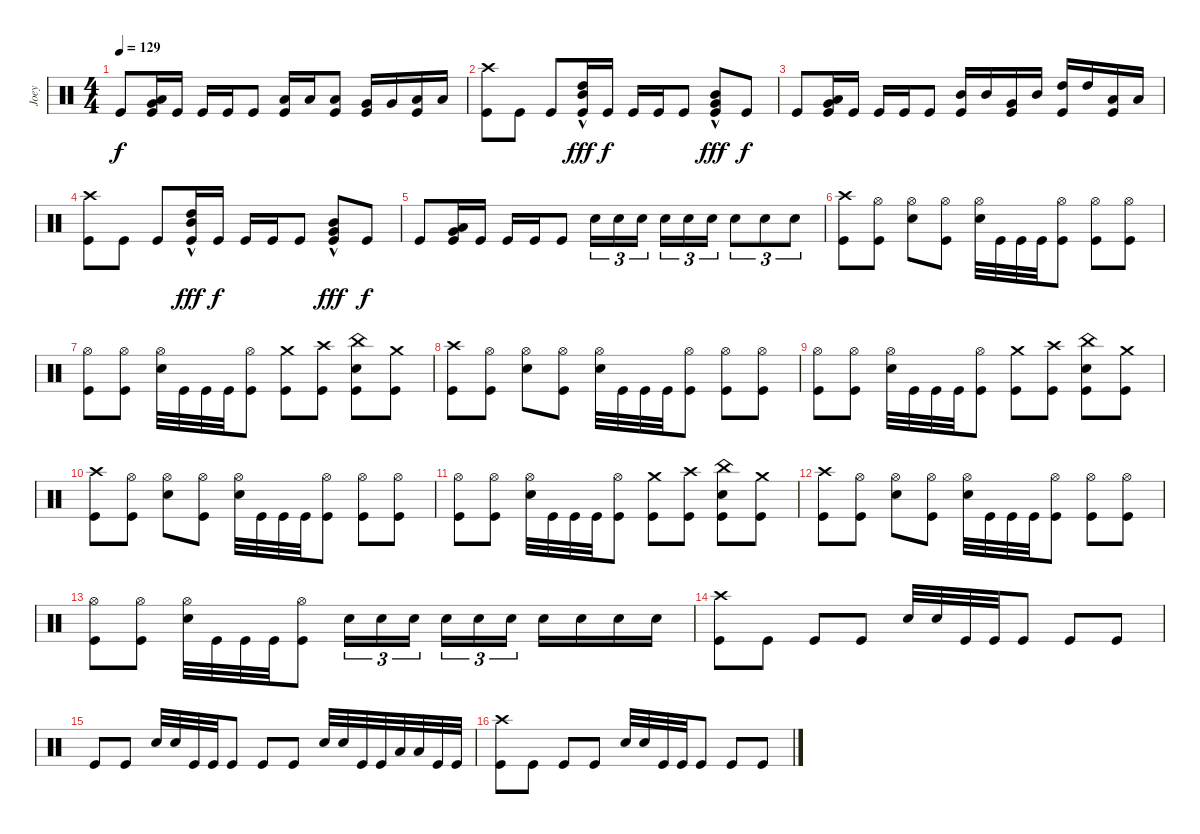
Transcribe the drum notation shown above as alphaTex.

\track ("Joey" "Joey") {instrument percussion}
\staff {score}
\articulation defaults
\ts (4 4)
\tempo 129
\clef neutral
\ks c "Kick (hit)".8{dy f}
("Kick (hit)" "Low Floor Tom (hit)" "Very Low Tom (hit)").16 "Kick (hit)".16 "Kick (hit)".16 "Kick (hit)".16 "Kick (hit)".8 ("Kick (hit)" "Low Tom (hit)").16 "Low Tom (hit)".16 ("Kick (hit)" "Low Tom (hit)").8 ("Kick (hit)" "Very Low Tom (hit)").16 "Very Low Tom (hit)".16 ("Kick (hit)" "Low Floor Tom (hit)").16 "Low Floor Tom (hit)".16 |
("Crash high (hit)" "Kick (hit)").8 "Kick (hit)".8 "Kick (hit)".8 ("Kick (hit)" "High Tom (hit)"{hac} "Mid Tom (hit)"{hac}).16{dy fff} "Kick (hit)".16{dy f} "Kick (hit)".16 "Kick (hit)".16 "Kick (hit)".8 ("Kick (hit)" "Very Low Tom (hit)"{hac} "Mid Tom (hit)"{hac}).8{dy fff} "Kick (hit)".8{dy f} |
"Kick (hit)".8 ("Kick (hit)" "Low Floor Tom (hit)" "Very Low Tom (hit)").16 "Kick (hit)".16 "Kick (hit)".16 "Kick (hit)".16 "Kick (hit)".8 ("Kick (hit)" "Mid Tom (hit)").16 "Mid Tom (hit)".16 ("Kick (hit)" "Very Low Tom (hit)").16 "Mid Tom (hit)".16 ("Kick (hit)" "High Tom (hit)").16 "High Tom (hit)".16 ("Kick (hit)" "Low Floor Tom (hit)").16 "Low Floor Tom (hit)".16 |
("Crash high (hit)" "Kick (hit)").8 "Kick (hit)".8 "Kick (hit)".8 ("Kick (hit)" "High Tom (hit)"{hac} "Mid Tom (hit)"{hac}).16{dy fff} "Kick (hit)".16{dy f} "Kick (hit)".16 "Kick (hit)".16 "Kick (hit)".8 ("Kick (hit)" "Very Low Tom (hit)"{hac} "Mid Tom (hit)"{hac}).8{dy fff} "Kick (hit)".8{dy f} |
"Kick (hit)".8 ("Kick (hit)" "Low Floor Tom (hit)" "Very Low Tom (hit)").16 "Kick (hit)".16 "Kick (hit)".16 "Kick (hit)".16 "Kick (hit)".8 "Snare (hit) 2".16{tu (3 2)} "Snare (hit) 2".16{tu (3 2)} "Snare (hit) 2".16{tu (3 2) beam splitsecondary} "Snare (hit) 2".16{tu (3 2)} "Snare (hit) 2".16{tu (3 2)} "Snare (hit) 2".16{tu (3 2)} "Snare (hit) 2".8{tu (3 2)} "Snare (hit) 2".8{tu (3 2)} "Snare (hit) 2".8{tu (3 2)} |
("Crash high (hit)" "Kick (hit)").8 ("Kick (hit)" "Hi-Hat (open)").8 ("Snare (hit) 2" "Hi-Hat (open)").8 ("Kick (hit)" "Hi-Hat (open)").8 ("Snare (hit) 2" "Hi-Hat (open)").32 "Kick (hit)".32 "Kick (hit)".32 "Kick (hit)".32 ("Kick (hit)" "Hi-Hat (open)").8 ("Kick (hit)" "Hi-Hat (open)").8 ("Kick (hit)" "Hi-Hat (open)").8 |
("Kick (hit)" "Hi-Hat (open)").8 ("Kick (hit)" "Hi-Hat (open)").8 ("Snare (hit) 2" "Hi-Hat (open)").32 "Kick (hit)".32 "Kick (hit)".32 "Kick (hit)".32 ("Kick (hit)" "Hi-Hat (open)").8 ("Kick (hit)" "Crash medium (hit)").8 ("Kick (hit)" "Crash high (hit)").8 ("Kick (hit)" "China (hit)" "Snare (hit) 2").8 ("Kick (hit)" "Crash medium (hit)").8 |
("Crash high (hit)" "Kick (hit)").8 ("Kick (hit)" "Hi-Hat (open)").8 ("Snare (hit) 2" "Hi-Hat (open)").8 ("Kick (hit)" "Hi-Hat (open)").8 ("Snare (hit) 2" "Hi-Hat (open)").32 "Kick (hit)".32 "Kick (hit)".32 "Kick (hit)".32 ("Kick (hit)" "Hi-Hat (open)").8 ("Kick (hit)" "Hi-Hat (open)").8 ("Kick (hit)" "Hi-Hat (open)").8 |
("Kick (hit)" "Hi-Hat (open)").8 ("Kick (hit)" "Hi-Hat (open)").8 ("Snare (hit) 2" "Hi-Hat (open)").32 "Kick (hit)".32 "Kick (hit)".32 "Kick (hit)".32 ("Kick (hit)" "Hi-Hat (open)").8 ("Kick (hit)" "Crash medium (hit)").8 ("Kick (hit)" "Crash high (hit)").8 ("Kick (hit)" "China (hit)" "Snare (hit) 2").8 ("Kick (hit)" "Crash medium (hit)").8 |
("Crash high (hit)" "Kick (hit)").8 ("Kick (hit)" "Hi-Hat (open)").8 ("Snare (hit) 2" "Hi-Hat (open)").8 ("Kick (hit)" "Hi-Hat (open)").8 ("Snare (hit) 2" "Hi-Hat (open)").32 "Kick (hit)".32 "Kick (hit)".32 "Kick (hit)".32 ("Kick (hit)" "Hi-Hat (open)").8 ("Kick (hit)" "Hi-Hat (open)").8 ("Kick (hit)" "Hi-Hat (open)").8 |
("Kick (hit)" "Hi-Hat (open)").8 ("Kick (hit)" "Hi-Hat (open)").8 ("Snare (hit) 2" "Hi-Hat (open)").32 "Kick (hit)".32 "Kick (hit)".32 "Kick (hit)".32 ("Kick (hit)" "Hi-Hat (open)").8 ("Kick (hit)" "Crash medium (hit)").8 ("Kick (hit)" "Crash high (hit)").8 ("Kick (hit)" "China (hit)" "Snare (hit) 2").8 ("Kick (hit)" "Crash medium (hit)").8 |
("Crash high (hit)" "Kick (hit)").8 ("Kick (hit)" "Hi-Hat (open)").8 ("Snare (hit) 2" "Hi-Hat (open)").8 ("Kick (hit)" "Hi-Hat (open)").8 ("Snare (hit) 2" "Hi-Hat (open)").32 "Kick (hit)".32 "Kick (hit)".32 "Kick (hit)".32 ("Kick (hit)" "Hi-Hat (open)").8 ("Kick (hit)" "Hi-Hat (open)").8 ("Kick (hit)" "Hi-Hat (open)").8 |
("Kick (hit)" "Hi-Hat (open)").8 ("Kick (hit)" "Hi-Hat (open)").8 ("Snare (hit) 2" "Hi-Hat (open)").32 "Kick (hit)".32 "Kick (hit)".32 "Kick (hit)".32 ("Kick (hit)" "Hi-Hat (open)").8 "Snare (hit) 2".16{tu (3 2)} "Snare (hit) 2".16{tu (3 2)} "Snare (hit) 2".16{tu (3 2) beam splitsecondary} "Snare (hit) 2".16{tu (3 2)} "Snare (hit) 2".16{tu (3 2)} "Snare (hit) 2".16{tu (3 2)} "Snare (hit) 2".16 "Snare (hit) 2".16 "Snare (hit) 2".16 "Snare (hit) 2".16 |
("Crash high (hit)" "Kick (hit)").8 "Kick (hit)".8 "Kick (hit)".8 "Kick (hit)".8 "Snare (hit) 2".32 "Snare (hit) 2".32 "Kick (hit)".32 "Kick (hit)".32 "Kick (hit)".8 "Kick (hit)".8 "Kick (hit)".8 |
"Kick (hit)".8 "Kick (hit)".8 "Snare (hit) 2".32 "Snare (hit) 2".32 "Kick (hit)".32 "Kick (hit)".32 "Kick (hit)".8 "Kick (hit)".8 "Kick (hit)".8 "Snare (hit) 2".32 "Snare (hit) 2".32 "Kick (hit)".32 "Kick (hit)".32 "Low Floor Tom (hit)".32 "Low Floor Tom (hit)".32 "Kick (hit)".32 "Kick (hit)".32 |
("Crash high (hit)" "Kick (hit)").8 "Kick (hit)".8 "Kick (hit)".8 "Kick (hit)".8 "Snare (hit) 2".32 "Snare (hit) 2".32 "Kick (hit)".32 "Kick (hit)".32 "Kick (hit)".8 "Kick (hit)".8 "Kick (hit)".8
